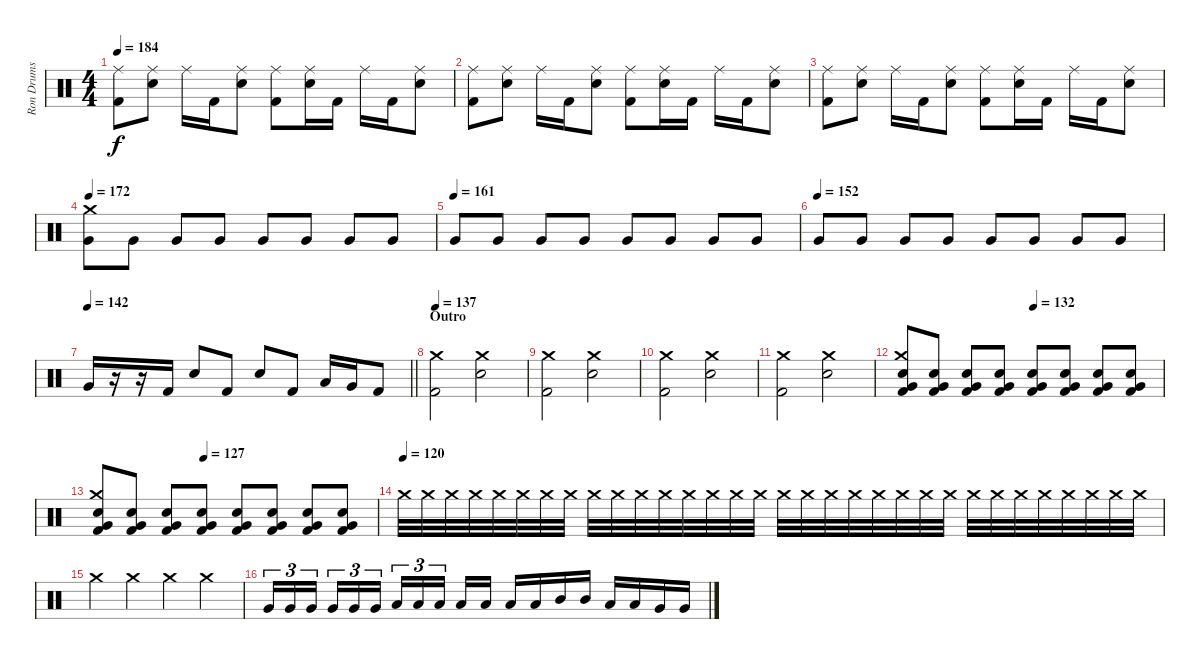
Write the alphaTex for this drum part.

\track ("Ron Drums and Percussion" "Ron Drums ") {instrument percussion}
\staff {score}
\articulation defaults
\ts (4 4)
\tempo 184
\clef neutral
\ks c
("Ride (middle)" "Kick (hit) 2").8{dy f} ("Ride (middle)" "Electric Snare (hit)").8 "Ride (middle)".16 "Kick (hit) 2".16 ("Ride (middle)" "Electric Snare (hit)").8 ("Ride (middle)" "Kick (hit) 2").8 ("Ride (middle)" "Electric Snare (hit)").16 "Kick (hit) 2".16 "Ride (middle)".16 "Kick (hit) 2".16 ("Ride (middle)" "Electric Snare (hit)").8 |
("Ride (middle)" "Kick (hit) 2").8 ("Ride (middle)" "Electric Snare (hit)").8 "Ride (middle)".16 "Kick (hit) 2".16 ("Ride (middle)" "Electric Snare (hit)").8 ("Ride (middle)" "Kick (hit) 2").8 ("Ride (middle)" "Electric Snare (hit)").16 "Kick (hit) 2".16 "Ride (middle)".16 "Kick (hit) 2".16 ("Ride (middle)" "Electric Snare (hit)").8 |
("Ride (middle)" "Kick (hit) 2").8 ("Ride (middle)" "Electric Snare (hit)").8 "Ride (middle)".16 "Kick (hit) 2".16 ("Ride (middle)" "Electric Snare (hit)").8 ("Ride (middle)" "Kick (hit) 2").8 ("Ride (middle)" "Electric Snare (hit)").16 "Kick (hit) 2".16 "Ride (middle)".16 "Kick (hit) 2".16 ("Ride (middle)" "Electric Snare (hit)").8 |
\tempo 172
("Crash medium (hit)" "Very Low Tom (hit)").8 "Very Low Tom (hit)".8 "Very Low Tom (hit)".8 "Very Low Tom (hit)".8 "Very Low Tom (hit)".8 "Very Low Tom (hit)".8 "Very Low Tom (hit)".8 "Very Low Tom (hit)".8 |
\tempo (161)
"Very Low Tom (hit)".8 "Very Low Tom (hit)".8 "Very Low Tom (hit)".8 "Very Low Tom (hit)".8 "Very Low Tom (hit)".8 "Very Low Tom (hit)".8 "Very Low Tom (hit)".8 "Very Low Tom (hit)".8 |
\tempo (152)
"Very Low Tom (hit)".8 "Very Low Tom (hit)".8 "Very Low Tom (hit)".8 "Very Low Tom (hit)".8 "Very Low Tom (hit)".8 "Very Low Tom (hit)".8 "Very Low Tom (hit)".8 "Very Low Tom (hit)".8 |
\tempo 142
\barLineRight lightlight "Very Low Tom (hit)".16
r.16 r.16 "Kick (hit) 2".16 "Electric Snare (hit)".8 "Kick (hit) 2".8 "Electric Snare (hit)".8 "Kick (hit) 2".8 "Low Tom (hit)".16 "Very Low Tom (hit)".16 "Kick (hit) 2".8 |
\section ("" "Outro")
\tempo 137
("Crash medium (hit)" "Kick (hit) 2").2 ("Crash medium (hit)" "Electric Snare (hit)").2 |
("Crash medium (hit)" "Kick (hit) 2").2 ("Crash medium (hit)" "Electric Snare (hit)").2 |
("Crash medium (hit)" "Kick (hit) 2").2 ("Crash medium (hit)" "Electric Snare (hit)").2 |
("Crash medium (hit)" "Kick (hit) 2").2 ("Crash medium (hit)" "Electric Snare (hit)").2 |
\tempo (132 0.5)
("Crash medium (hit)" "Electric Snare (hit)" "Very Low Tom (hit)" "Kick (hit) 2").8 ("Electric Snare (hit)" "Very Low Tom (hit)" "Kick (hit) 2").8 ("Electric Snare (hit)" "Very Low Tom (hit)" "Kick (hit) 2").8 ("Electric Snare (hit)" "Very Low Tom (hit)" "Kick (hit) 2").8 ("Electric Snare (hit)" "Very Low Tom (hit)" "Kick (hit) 2").8 ("Electric Snare (hit)" "Very Low Tom (hit)" "Kick (hit) 2").8 ("Electric Snare (hit)" "Very Low Tom (hit)" "Kick (hit) 2").8 ("Electric Snare (hit)" "Very Low Tom (hit)" "Kick (hit) 2").8 |
\tempo (127 0.375)
("Crash medium (hit)" "Electric Snare (hit)" "Very Low Tom (hit)" "Kick (hit) 2").8 ("Electric Snare (hit)" "Very Low Tom (hit)" "Kick (hit) 2").8 ("Electric Snare (hit)" "Very Low Tom (hit)" "Kick (hit) 2").8 ("Electric Snare (hit)" "Very Low Tom (hit)" "Kick (hit) 2").8 ("Electric Snare (hit)" "Very Low Tom (hit)" "Kick (hit) 2").8 ("Electric Snare (hit)" "Very Low Tom (hit)" "Kick (hit) 2").8 ("Electric Snare (hit)" "Very Low Tom (hit)" "Kick (hit) 2").8 ("Electric Snare (hit)" "Very Low Tom (hit)" "Kick (hit) 2").8 |
\tempo (120)
"Crash medium (hit)".32 "Crash medium (hit)".32 "Crash medium (hit)".32 "Crash medium (hit)".32 "Crash medium (hit)".32 "Crash medium (hit)".32 "Crash medium (hit)".32 "Crash medium (hit)".32 "Crash medium (hit)".32 "Crash medium (hit)".32 "Crash medium (hit)".32 "Crash medium (hit)".32 "Crash medium (hit)".32 "Crash medium (hit)".32 "Crash medium (hit)".32 "Crash medium (hit)".32 "Crash medium (hit)".32 "Crash medium (hit)".32 "Crash medium (hit)".32 "Crash medium (hit)".32 "Crash medium (hit)".32 "Crash medium (hit)".32 "Crash medium (hit)".32 "Crash medium (hit)".32 "Crash medium (hit)".32 "Crash medium (hit)".32 "Crash medium (hit)".32 "Crash medium (hit)".32 "Crash medium (hit)".32 "Crash medium (hit)".32 "Crash medium (hit)".32 "Crash medium (hit)".32 |
"Crash medium (hit)".4 "Crash medium (hit)".4 "Crash medium (hit)".4 "Crash medium (hit)".4 |
"Very Low Tom (hit)".16{tu (3 2)} "Very Low Tom (hit)".16{tu (3 2)} "Very Low Tom (hit)".16{tu (3 2) beam splitsecondary} "Very Low Tom (hit)".16{tu (3 2)} "Very Low Tom (hit)".16{tu (3 2)} "Very Low Tom (hit)".16{tu (3 2)} "Low Tom (hit)".16{tu (3 2)} "Low Tom (hit)".16{tu (3 2)} "Low Tom (hit)".16{tu (3 2) beam splitsecondary} "Low Tom (hit)".16 "Low Tom (hit)".16 "Low Tom (hit)".16 "Low Tom (hit)".16 "Mid Tom (hit)".16 "Mid Tom (hit)".16 "Low Tom (hit)".16 "Low Tom (hit)".16 "Very Low Tom (hit)".16 "Very Low Tom (hit)".16
